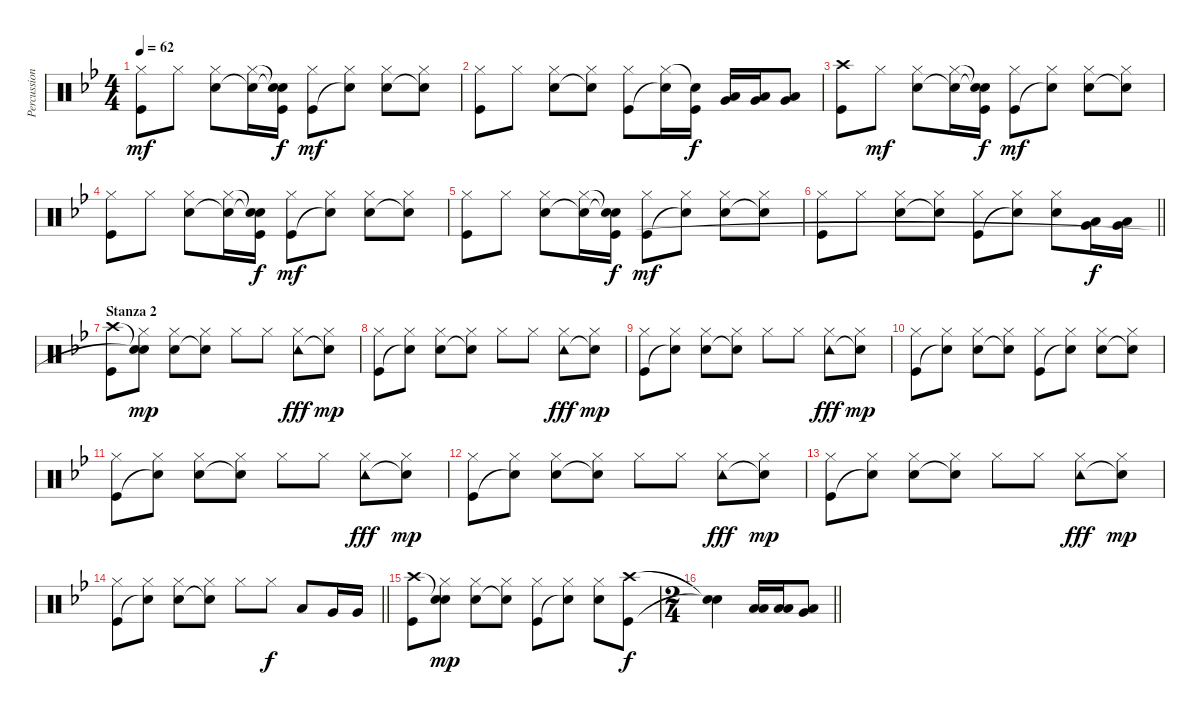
\track ("Percussion" "Percussion") {instrument percussion}
\staff {score}
\articulation defaults
\ts (4 4)
\tempo 62
\clef neutral
\ks bb
("Hi-Hat (closed)" "Kick (hit)").8{dy mf} "Hi-Hat (closed)".8 ("Hi-Hat (closed)" "Snare (hit) 2").8 ("Hi-Hat (closed)" "Snare (hit)"{t}).16 ("Snare (hit)"{t} "Snare (hit)"{t} "Kick (hit)").16{dy f} ("Hi-Hat (closed)" "Kick (hit)").8{dy mf} ("Hi-Hat (closed)" "Snare (hit)"{t}).8 ("Hi-Hat (closed)" "Snare (hit) 2").8 ("Hi-Hat (closed)" "Snare (hit)"{t}).8 |
("Hi-Hat (closed)" "Kick (hit)").8 "Hi-Hat (closed)".8 ("Hi-Hat (closed)" "Snare (hit) 2").8 ("Hi-Hat (closed)" "Snare (hit)"{t}).8 ("Hi-Hat (closed)" "Kick (hit)").8 ("Hi-Hat (closed)" "Snare (hit)"{t}).16 ("Snare (hit)"{t} "Kick (hit)").16{dy f} ("Very Low Tom (hit)" "Low Tom (hit)").16 ("Low Floor Tom (hit)" "Very Low Tom (hit)").16 ("Low Floor Tom (hit)" "Very Low Tom (hit)").8 |
("Crash high (hit)" "Kick (hit)").8 "Hi-Hat (closed)".8{dy mf} ("Hi-Hat (closed)" "Snare (hit) 2").8 ("Hi-Hat (closed)" "Snare (hit)"{t}).16 ("Snare (hit)"{t} "Snare (hit)"{t} "Kick (hit)").16{dy f} ("Hi-Hat (closed)" "Kick (hit)").8{dy mf} ("Hi-Hat (closed)" "Snare (hit)"{t}).8 ("Hi-Hat (closed)" "Snare (hit) 2").8 ("Hi-Hat (closed)" "Snare (hit)"{t}).8 |
("Hi-Hat (closed)" "Kick (hit)").8 "Hi-Hat (closed)".8 ("Hi-Hat (closed)" "Snare (hit) 2").8 ("Hi-Hat (closed)" "Snare (hit)"{t}).16 ("Snare (hit)"{t} "Snare (hit)"{t} "Kick (hit)").16{dy f} ("Hi-Hat (closed)" "Kick (hit)").8{dy mf} ("Hi-Hat (closed)" "Snare (hit)"{t}).8 ("Hi-Hat (closed)" "Snare (hit) 2").8 ("Hi-Hat (closed)" "Snare (hit)"{t}).8 |
("Hi-Hat (closed)" "Kick (hit)").8 "Hi-Hat (closed)".8 ("Hi-Hat (closed)" "Snare (hit) 2").8 ("Hi-Hat (closed)" "Snare (hit)"{t}).16 ("Snare (hit)"{t} "Snare (hit)"{t} "Kick (hit)").16{dy f} ("Hi-Hat (closed)" "Kick (hit)").8{dy mf} ("Hi-Hat (closed)" "Snare (hit)"{t}).8 ("Hi-Hat (closed)" "Snare (hit) 2").8 ("Hi-Hat (closed)" "Snare (hit)"{t}).8 |
\barLineRight lightlight
("Hi-Hat (closed)" "Kick (hit)").8 "Hi-Hat (closed)".8 ("Hi-Hat (closed)" "Snare (hit) 2").8 ("Hi-Hat (closed)" "Snare (hit)"{t}).8 ("Hi-Hat (closed)" "Kick (hit)").8 ("Hi-Hat (closed)" "Snare (hit)"{t}).8 ("Hi-Hat (closed)" "Snare (hit) 2").8 ("Very Low Tom (hit)" "Low Tom (hit)").16{dy f} ("Very Low Tom (hit)" "Low Tom (hit)").16 |
\section ("" "Stanza 2")
("Crash high (hit)" "Kick (hit)").8 ("Snare (hit)"{t} "Hi-Hat (closed)" "Snare (hit)"{t}).8{dy mp} ("Hi-Hat (closed)" "Snare (hit) 2").8 ("Hi-Hat (closed)" "Snare (hit)"{t}).8 "Hi-Hat (closed)".8 "Hi-Hat (closed)".8 ("Hi-Hat (closed)" "Tambourine (hit)").8{dy fff} ("Hi-Hat (closed)" "Snare (hit)"{t}).8{dy mp} |
("Hi-Hat (closed)" "Kick (hit)").8 ("Hi-Hat (closed)" "Snare (hit)"{t}).8 ("Hi-Hat (closed)" "Snare (hit) 2").8 ("Hi-Hat (closed)" "Snare (hit)"{t}).8 "Hi-Hat (closed)".8 "Hi-Hat (closed)".8 ("Hi-Hat (closed)" "Tambourine (hit)").8{dy fff} ("Hi-Hat (closed)" "Snare (hit)"{t}).8{dy mp} |
("Hi-Hat (closed)" "Kick (hit)").8 ("Hi-Hat (closed)" "Snare (hit)"{t}).8 ("Hi-Hat (closed)" "Snare (hit) 2").8 ("Hi-Hat (closed)" "Snare (hit)"{t}).8 "Hi-Hat (closed)".8 "Hi-Hat (closed)".8 ("Hi-Hat (closed)" "Tambourine (hit)").8{dy fff} ("Hi-Hat (closed)" "Snare (hit)"{t}).8{dy mp} |
("Hi-Hat (closed)" "Kick (hit)").8 ("Hi-Hat (closed)" "Snare (hit)"{t}).8 ("Hi-Hat (closed)" "Snare (hit) 2").8 ("Hi-Hat (closed)" "Snare (hit)"{t}).8 ("Hi-Hat (closed)" "Kick (hit)").8 ("Hi-Hat (closed)" "Snare (hit)"{t}).8 ("Hi-Hat (closed)" "Snare (hit) 2").8 ("Hi-Hat (closed)" "Snare (hit)"{t}).8 |
("Hi-Hat (closed)" "Kick (hit)").8 ("Hi-Hat (closed)" "Snare (hit)"{t}).8 ("Hi-Hat (closed)" "Snare (hit) 2").8 ("Hi-Hat (closed)" "Snare (hit)"{t}).8 "Hi-Hat (closed)".8 "Hi-Hat (closed)".8 ("Hi-Hat (closed)" "Tambourine (hit)").8{dy fff} ("Hi-Hat (closed)" "Snare (hit)"{t}).8{dy mp} |
("Hi-Hat (closed)" "Kick (hit)").8 ("Hi-Hat (closed)" "Snare (hit)"{t}).8 ("Hi-Hat (closed)" "Snare (hit) 2").8 ("Hi-Hat (closed)" "Snare (hit)"{t}).8 "Hi-Hat (closed)".8 "Hi-Hat (closed)".8 ("Hi-Hat (closed)" "Tambourine (hit)").8{dy fff} ("Hi-Hat (closed)" "Snare (hit)"{t}).8{dy mp} |
("Hi-Hat (closed)" "Kick (hit)").8 ("Hi-Hat (closed)" "Snare (hit)"{t}).8 ("Hi-Hat (closed)" "Snare (hit) 2").8 ("Hi-Hat (closed)" "Snare (hit)"{t}).8 "Hi-Hat (closed)".8 "Hi-Hat (closed)".8 ("Hi-Hat (closed)" "Tambourine (hit)").8{dy fff} ("Hi-Hat (closed)" "Snare (hit)"{t}).8{dy mp} |
\barLineRight lightlight
("Hi-Hat (closed)" "Kick (hit)").8 ("Hi-Hat (closed)" "Snare (hit)"{t}).8 ("Hi-Hat (closed)" "Snare (hit) 2").8 ("Hi-Hat (closed)" "Snare (hit)"{t}).8 "Hi-Hat (closed)".8 "Hi-Hat (closed)".8{dy f} "Low Tom (hit)".8 "Very Low Tom (hit)".16 "Very Low Tom (hit)".16 |
("Crash high (hit)" "Kick (hit)").8 ("Snare (hit)"{t} "Hi-Hat (closed)" "Snare (hit)").8{dy mp} ("Hi-Hat (closed)" "Snare (hit) 2").8 ("Hi-Hat (closed)" "Snare (hit)"{t}).8 ("Hi-Hat (closed)" "Kick (hit)").8 ("Hi-Hat (closed)" "Snare (hit)"{t}).8 ("Hi-Hat (closed)" "Snare (hit) 2").8 ("Crash high (hit)" "Kick (hit)").8{dy f} |
\ts (2 4)
\barLineRight lightlight
("Snare (hit)"{t} "Snare (hit)"{t}).4 ("Low Floor Tom (hit)" "Low Tom (hit)").16 ("Low Floor Tom (hit)" "Low Tom (hit)").16 ("Low Floor Tom (hit)" "Very Low Tom (hit)").8
